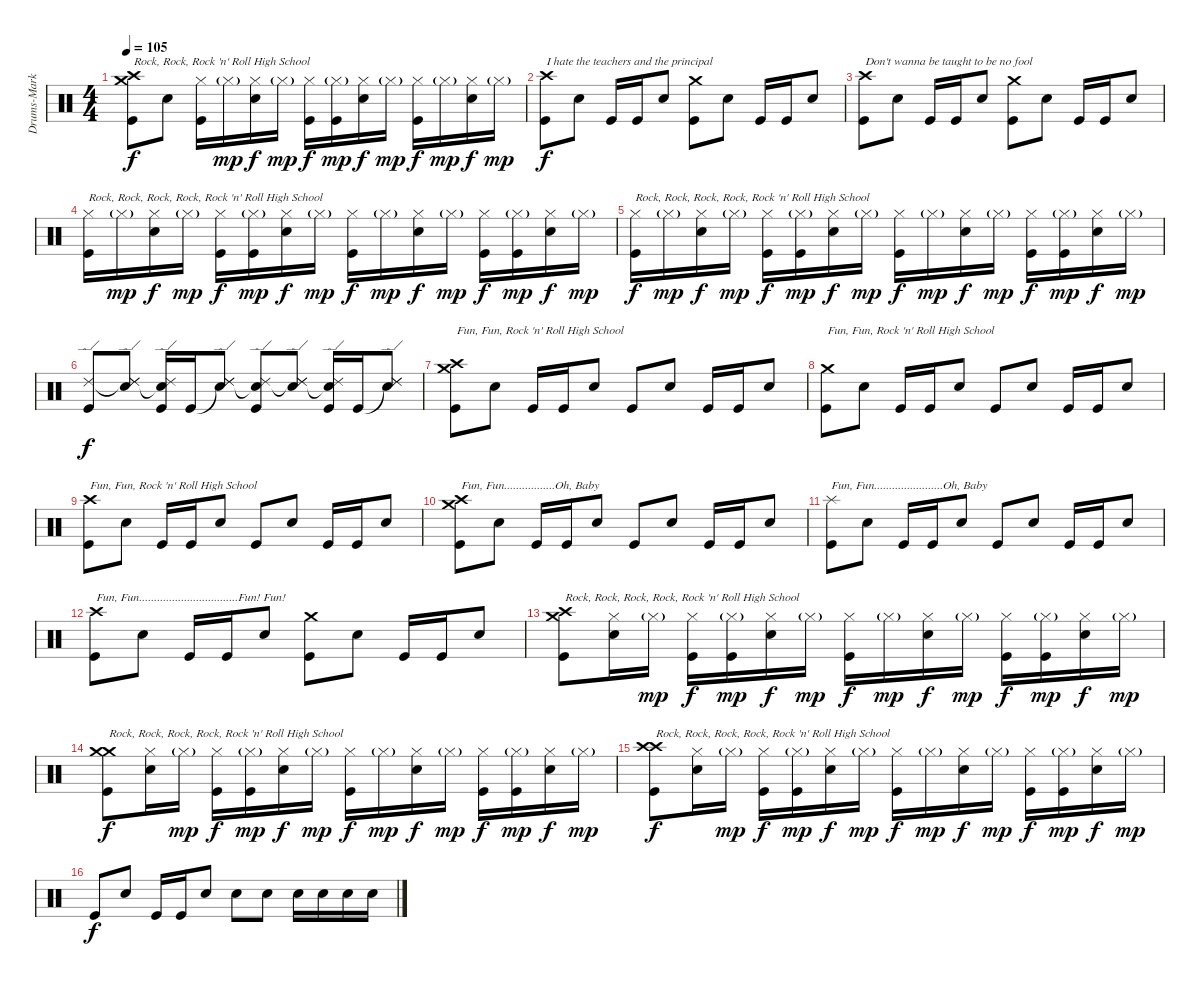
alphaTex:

\track ("Drums-Marky Ramone" "Drums-Mark") {instrument percussion}
\staff {score}
\articulation defaults
\ts (4 4)
\tempo 105
\clef neutral
\ks c
("Crash high (hit)" "Crash medium (hit)" "Kick (hit)").8{txt "Rock, Rock, Rock 'n' Roll High School" dy f} "Snare (hit) 2".8 ("Hi-Hat (closed)" "Kick (hit)").16 "Hi-Hat (closed)"{g}.16{dy mp} ("Hi-Hat (closed)" "Snare (hit) 2").16{dy f} "Hi-Hat (closed)"{g}.16{dy mp} ("Hi-Hat (closed)" "Kick (hit)").16{dy f} ("Hi-Hat (closed)"{g} "Kick (hit)").16{dy mp} ("Hi-Hat (closed)" "Snare (hit) 2").16{dy f} "Hi-Hat (closed)"{g}.16{dy mp} ("Hi-Hat (closed)" "Kick (hit)").16{dy f} "Hi-Hat (closed)"{g}.16{dy mp} ("Hi-Hat (closed)" "Snare (hit) 2").16{dy f} "Hi-Hat (closed)"{g}.16{dy mp} |
("Crash high (hit)" "Kick (hit)").8{txt "I hate the teachers and the principal" dy f} "Snare (hit) 2".8 "Kick (hit)".16 "Kick (hit)".16 "Snare (hit) 2".8 ("Crash medium (hit)" "Kick (hit)").8 "Snare (hit) 2".8 "Kick (hit)".16 "Kick (hit)".16 "Snare (hit) 2".8 |
("Crash high (hit)" "Kick (hit)").8{txt "Don't wanna be taught to be no fool"} "Snare (hit) 2".8 "Kick (hit)".16 "Kick (hit)".16 "Snare (hit) 2".8 ("Crash medium (hit)" "Kick (hit)").8 "Snare (hit) 2".8 "Kick (hit)".16 "Kick (hit)".16 "Snare (hit) 2".8 |
("Hi-Hat (closed)" "Kick (hit)").16{txt "Rock, Rock, Rock, Rock, Rock 'n' Roll High School"} "Hi-Hat (closed)"{g}.16{dy mp} ("Hi-Hat (closed)" "Snare (hit) 2").16{dy f} "Hi-Hat (closed)"{g}.16{dy mp} ("Hi-Hat (closed)" "Kick (hit)").16{dy f} ("Hi-Hat (closed)"{g} "Kick (hit)").16{dy mp} ("Hi-Hat (closed)" "Snare (hit) 2").16{dy f} "Hi-Hat (closed)"{g}.16{dy mp} ("Hi-Hat (closed)" "Kick (hit)").16{dy f} "Hi-Hat (closed)"{g}.16{dy mp} ("Hi-Hat (closed)" "Snare (hit) 2").16{dy f} "Hi-Hat (closed)"{g}.16{dy mp} ("Hi-Hat (closed)" "Kick (hit)").16{dy f} ("Hi-Hat (closed)"{g} "Kick (hit)").16{dy mp} ("Hi-Hat (closed)" "Snare (hit) 2").16{dy f} "Hi-Hat (closed)"{g}.16{dy mp} |
("Hi-Hat (closed)" "Kick (hit)").16{txt "Rock, Rock, Rock, Rock, Rock 'n' Roll High School" dy f} "Hi-Hat (closed)"{g}.16{dy mp} ("Hi-Hat (closed)" "Snare (hit) 2").16{dy f} "Hi-Hat (closed)"{g}.16{dy mp} ("Hi-Hat (closed)" "Kick (hit)").16{dy f} ("Hi-Hat (closed)"{g} "Kick (hit)").16{dy mp} ("Hi-Hat (closed)" "Snare (hit) 2").16{dy f} "Hi-Hat (closed)"{g}.16{dy mp} ("Hi-Hat (closed)" "Kick (hit)").16{dy f} "Hi-Hat (closed)"{g}.16{dy mp} ("Hi-Hat (closed)" "Snare (hit) 2").16{dy f} "Hi-Hat (closed)"{g}.16{dy mp} ("Hi-Hat (closed)" "Kick (hit)").16{dy f} ("Hi-Hat (closed)"{g} "Kick (hit)").16{dy mp} ("Hi-Hat (closed)" "Snare (hit) 2").16{dy f} "Hi-Hat (closed)"{g}.16{dy mp} |
("Ride (edge) 2" "Kick (hit)").8{dy f} ("Ride (edge) 2"{t} "Ride (edge) 2" "Snare (hit) 2").8 ("Ride (edge) 2" "Snare (hit)"{t} "Kick (hit)").16 "Kick (hit)".16 ("Ride (edge) 2"{t} "Ride (edge) 2" "Snare (hit) 2").8 ("Ride (edge) 2" "Snare (hit)"{t} "Kick (hit)").8 ("Ride (edge) 2"{t} "Ride (edge) 2" "Snare (hit) 2").8 ("Ride (edge) 2" "Snare (hit)"{t} "Kick (hit)").16 "Kick (hit)".16 ("Ride (edge) 2"{t} "Ride (edge) 2" "Snare (hit) 2").8 |
("Crash medium (hit)" "Crash high (hit)" "Kick (hit)").8{txt "Fun, Fun, Rock 'n' Roll High School"} "Snare (hit) 2".8 "Kick (hit)".16 "Kick (hit)".16 "Snare (hit) 2".8 "Kick (hit)".8 "Snare (hit) 2".8 "Kick (hit)".16 "Kick (hit)".16 "Snare (hit) 2".8 |
("Crash medium (hit)" "Kick (hit)").8{txt "Fun, Fun, Rock 'n' Roll High School"} "Snare (hit) 2".8 "Kick (hit)".16 "Kick (hit)".16 "Snare (hit) 2".8 "Kick (hit)".8 "Snare (hit) 2".8 "Kick (hit)".16 "Kick (hit)".16 "Snare (hit) 2".8 |
("Crash high (hit)" "Kick (hit)").8{txt "Fun, Fun, Rock 'n' Roll High School"} "Snare (hit) 2".8 "Kick (hit)".16 "Kick (hit)".16 "Snare (hit) 2".8 "Kick (hit)".8 "Snare (hit) 2".8 "Kick (hit)".16 "Kick (hit)".16 "Snare (hit) 2".8 |
("Crash medium (hit)" "Crash high (hit)" "Kick (hit)").8{txt "Fun, Fun.................Oh, Baby"} "Snare (hit) 2".8 "Kick (hit)".16 "Kick (hit)".16 "Snare (hit) 2".8 "Kick (hit)".8 "Snare (hit) 2".8 "Kick (hit)".16 "Kick (hit)".16 "Snare (hit) 2".8 |
("Splash (hit)" "Kick (hit)").8{txt "Fun, Fun.......................Oh, Baby"} "Snare (hit) 2".8 "Kick (hit)".16 "Kick (hit)".16 "Snare (hit) 2".8 "Kick (hit)".8 "Snare (hit) 2".8 "Kick (hit)".16 "Kick (hit)".16 "Snare (hit) 2".8 |
("Crash high (hit)" "Kick (hit)").8{txt "Fun, Fun.................................Fun! Fun!"} "Snare (hit) 2".8 "Kick (hit)".16 "Kick (hit)".16 "Snare (hit) 2".8 ("Crash medium (hit)" "Kick (hit)").8 "Snare (hit) 2".8 "Kick (hit)".16 "Kick (hit)".16 "Snare (hit) 2".8 |
("Crash medium (hit)" "Crash high (hit)" "Kick (hit)").8{txt "Rock, Rock, Rock, Rock, Rock 'n' Roll High School"} ("Hi-Hat (closed)" "Snare (hit) 2").16 "Hi-Hat (closed)"{g}.16{dy mp} ("Hi-Hat (closed)" "Kick (hit)").16{dy f} ("Hi-Hat (closed)"{g} "Kick (hit)").16{dy mp} ("Hi-Hat (closed)" "Snare (hit) 2").16{dy f} "Hi-Hat (closed)"{g}.16{dy mp} ("Hi-Hat (closed)" "Kick (hit)").16{dy f} "Hi-Hat (closed)"{g}.16{dy mp} ("Hi-Hat (closed)" "Snare (hit) 2").16{dy f} "Hi-Hat (closed)"{g}.16{dy mp} ("Hi-Hat (closed)" "Kick (hit)").16{dy f} ("Hi-Hat (closed)"{g} "Kick (hit)").16{dy mp} ("Hi-Hat (closed)" "Snare (hit) 2").16{dy f} "Hi-Hat (closed)"{g}.16{dy mp} |
("Crash medium (hit)" "Crash medium (hit)" "Kick (hit)").8{txt "Rock, Rock, Rock, Rock, Rock 'n' Roll High School" dy f} ("Hi-Hat (closed)" "Snare (hit) 2").16 "Hi-Hat (closed)"{g}.16{dy mp} ("Hi-Hat (closed)" "Kick (hit)").16{dy f} ("Hi-Hat (closed)"{g} "Kick (hit)").16{dy mp} ("Hi-Hat (closed)" "Snare (hit) 2").16{dy f} "Hi-Hat (closed)"{g}.16{dy mp} ("Hi-Hat (closed)" "Kick (hit)").16{dy f} "Hi-Hat (closed)"{g}.16{dy mp} ("Hi-Hat (closed)" "Snare (hit) 2").16{dy f} "Hi-Hat (closed)"{g}.16{dy mp} ("Hi-Hat (closed)" "Kick (hit)").16{dy f} ("Hi-Hat (closed)"{g} "Kick (hit)").16{dy mp} ("Hi-Hat (closed)" "Snare (hit) 2").16{dy f} "Hi-Hat (closed)"{g}.16{dy mp} |
("Crash high (hit)" "Crash high (hit)" "Kick (hit)").8{txt "Rock, Rock, Rock, Rock, Rock 'n' Roll High School" dy f} ("Hi-Hat (closed)" "Snare (hit) 2").16 "Hi-Hat (closed)"{g}.16{dy mp} ("Hi-Hat (closed)" "Kick (hit)").16{dy f} ("Hi-Hat (closed)"{g} "Kick (hit)").16{dy mp} ("Hi-Hat (closed)" "Snare (hit) 2").16{dy f} "Hi-Hat (closed)"{g}.16{dy mp} ("Hi-Hat (closed)" "Kick (hit)").16{dy f} "Hi-Hat (closed)"{g}.16{dy mp} ("Hi-Hat (closed)" "Snare (hit) 2").16{dy f} "Hi-Hat (closed)"{g}.16{dy mp} ("Hi-Hat (closed)" "Kick (hit)").16{dy f} ("Hi-Hat (closed)"{g} "Kick (hit)").16{dy mp} ("Hi-Hat (closed)" "Snare (hit) 2").16{dy f} "Hi-Hat (closed)"{g}.16{dy mp} |
"Kick (hit)".8{dy f} "Snare (hit) 2".8 "Kick (hit)".16 "Kick (hit)".16 "Snare (hit) 2".8 "Snare (hit) 2".8 "Snare (hit) 2".8 "Snare (hit) 2".16 "Snare (hit) 2".16 "Snare (hit) 2".16 "Snare (hit) 2".16
